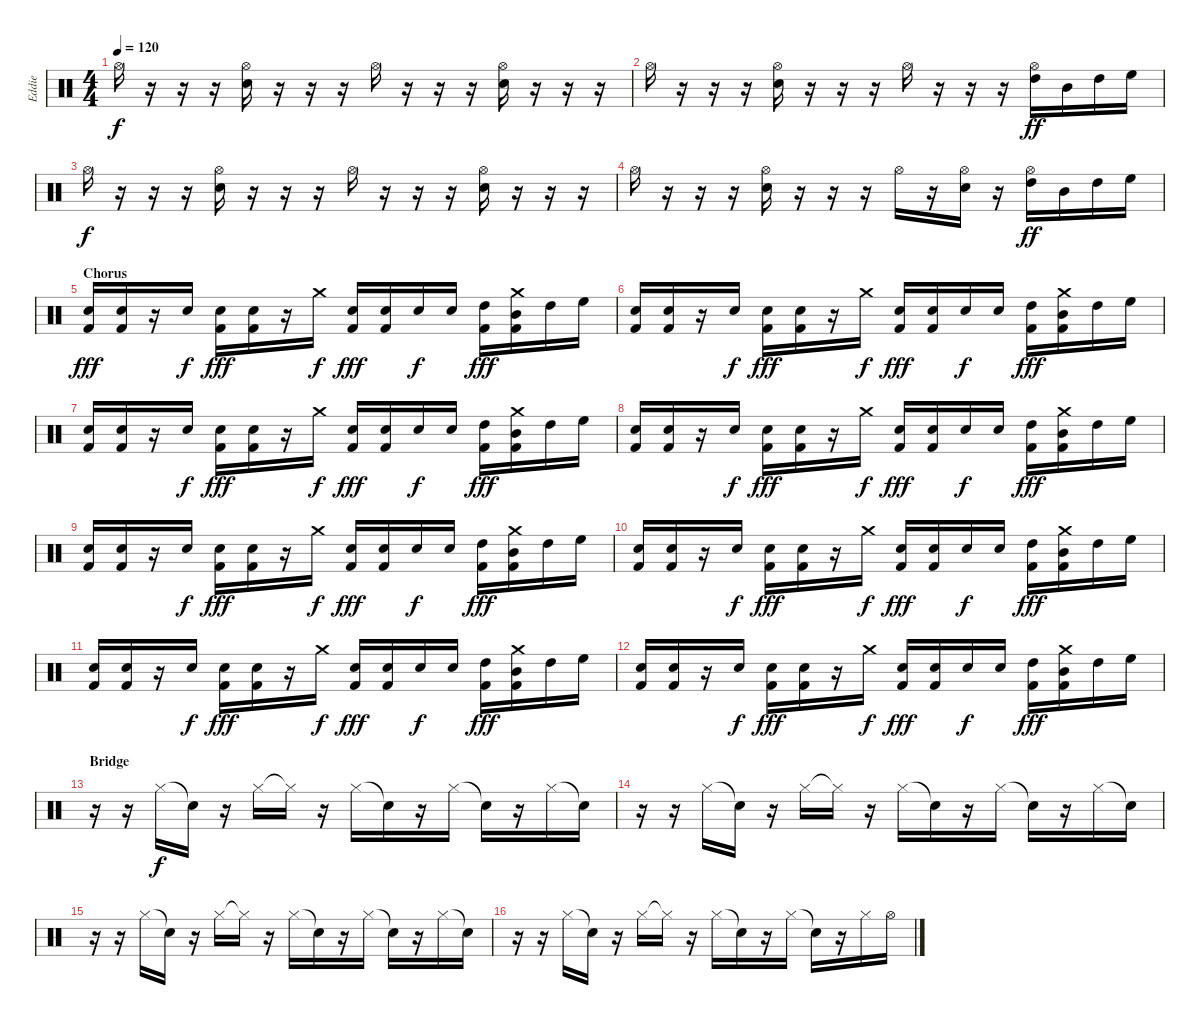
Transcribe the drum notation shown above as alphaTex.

\track ("Eddie" "Eddie") {instrument percussion}
\staff {score}
\articulation defaults
\ts (4 4)
\tempo 120
\clef neutral
\ks c "Hi-Hat (open)".16{dy f}
r.16 r.16 r.16 ("Snare (hit) 2" "Hi-Hat (open)").16 r.16 r.16 r.16 "Hi-Hat (open)".16 r.16 r.16 r.16 ("Snare (hit) 2" "Hi-Hat (open)").16 r.16 r.16 r.16 |
"Hi-Hat (open)".16 r.16 r.16 r.16 ("Snare (hit) 2" "Hi-Hat (open)").16 r.16 r.16 r.16 "Hi-Hat (open)".16 r.16 r.16 r.16 ("High Tom (hit)" "Hi-Hat (open)").16{dy ff} "Mid Tom (hit)".16 "High Tom (hit)".16 "High Floor Tom (hit)".16 |
"Hi-Hat (open)".16{dy f} r.16 r.16 r.16 ("Snare (hit) 2" "Hi-Hat (open)").16 r.16 r.16 r.16 "Hi-Hat (open)".16 r.16 r.16 r.16 ("Snare (hit) 2" "Hi-Hat (open)").16 r.16 r.16 r.16 |
"Hi-Hat (open)".16 r.16 r.16 r.16 ("Snare (hit) 2" "Hi-Hat (open)").16 r.16 r.16 r.16 "Hi-Hat (open)".16 r.16 ("Snare (hit) 2" "Hi-Hat (open)").16 r.16 ("High Tom (hit)" "Hi-Hat (open)").16{dy ff} "Mid Tom (hit)".16 "High Tom (hit)".16 "High Floor Tom (hit)".16 |
\section ("" "Chorus")
("Snare (hit) 2" "Kick (hit) 2").16{dy fff} ("Electric Snare (hit)" "Kick (hit) 2").16 r.16 "Electric Snare (hit)".16{dy f} ("Snare (hit) 2" "Kick (hit) 2").16{dy fff} ("Electric Snare (hit)" "Kick (hit) 2").16 r.16 "Crash medium (hit)".16{dy f} ("Snare (hit) 2" "Kick (hit) 2").16{dy fff} ("Electric Snare (hit)" "Kick (hit) 2").16 "Snare (hit) 2".16{dy f} "Electric Snare (hit)".16 ("High Tom (hit)" "Kick (hit) 2").16{dy fff} ("Mid Tom (hit)" "Crash medium (hit)" "Kick (hit) 2").16 "High Tom (hit)".16 "High Floor Tom (hit)".16 |
("Snare (hit) 2" "Kick (hit) 2").16 ("Electric Snare (hit)" "Kick (hit) 2").16 r.16 "Electric Snare (hit)".16{dy f} ("Snare (hit) 2" "Kick (hit) 2").16{dy fff} ("Electric Snare (hit)" "Kick (hit) 2").16 r.16 "Crash medium (hit)".16{dy f} ("Snare (hit) 2" "Kick (hit) 2").16{dy fff} ("Electric Snare (hit)" "Kick (hit) 2").16 "Snare (hit) 2".16{dy f} "Electric Snare (hit)".16 ("High Tom (hit)" "Kick (hit) 2").16{dy fff} ("Mid Tom (hit)" "Crash medium (hit)" "Kick (hit) 2").16 "High Tom (hit)".16 "High Floor Tom (hit)".16 |
("Snare (hit) 2" "Kick (hit) 2").16 ("Electric Snare (hit)" "Kick (hit) 2").16 r.16 "Electric Snare (hit)".16{dy f} ("Snare (hit) 2" "Kick (hit) 2").16{dy fff} ("Electric Snare (hit)" "Kick (hit) 2").16 r.16 "Crash medium (hit)".16{dy f} ("Snare (hit) 2" "Kick (hit) 2").16{dy fff} ("Electric Snare (hit)" "Kick (hit) 2").16 "Snare (hit) 2".16{dy f} "Electric Snare (hit)".16 ("High Tom (hit)" "Kick (hit) 2").16{dy fff} ("Mid Tom (hit)" "Crash medium (hit)" "Kick (hit) 2").16 "High Tom (hit)".16 "High Floor Tom (hit)".16 |
("Snare (hit) 2" "Kick (hit) 2").16 ("Electric Snare (hit)" "Kick (hit) 2").16 r.16 "Electric Snare (hit)".16{dy f} ("Snare (hit) 2" "Kick (hit) 2").16{dy fff} ("Electric Snare (hit)" "Kick (hit) 2").16 r.16 "Crash medium (hit)".16{dy f} ("Snare (hit) 2" "Kick (hit) 2").16{dy fff} ("Electric Snare (hit)" "Kick (hit) 2").16 "Snare (hit) 2".16{dy f} "Electric Snare (hit)".16 ("High Tom (hit)" "Kick (hit) 2").16{dy fff} ("Mid Tom (hit)" "Crash medium (hit)" "Kick (hit) 2").16 "High Tom (hit)".16 "High Floor Tom (hit)".16 |
("Snare (hit) 2" "Kick (hit) 2").16 ("Electric Snare (hit)" "Kick (hit) 2").16 r.16 "Electric Snare (hit)".16{dy f} ("Snare (hit) 2" "Kick (hit) 2").16{dy fff} ("Electric Snare (hit)" "Kick (hit) 2").16 r.16 "Crash medium (hit)".16{dy f} ("Snare (hit) 2" "Kick (hit) 2").16{dy fff} ("Electric Snare (hit)" "Kick (hit) 2").16 "Snare (hit) 2".16{dy f} "Electric Snare (hit)".16 ("High Tom (hit)" "Kick (hit) 2").16{dy fff} ("Mid Tom (hit)" "Crash medium (hit)" "Kick (hit) 2").16 "High Tom (hit)".16 "High Floor Tom (hit)".16 |
("Snare (hit) 2" "Kick (hit) 2").16 ("Electric Snare (hit)" "Kick (hit) 2").16 r.16 "Electric Snare (hit)".16{dy f} ("Snare (hit) 2" "Kick (hit) 2").16{dy fff} ("Electric Snare (hit)" "Kick (hit) 2").16 r.16 "Crash medium (hit)".16{dy f} ("Snare (hit) 2" "Kick (hit) 2").16{dy fff} ("Electric Snare (hit)" "Kick (hit) 2").16 "Snare (hit) 2".16{dy f} "Electric Snare (hit)".16 ("High Tom (hit)" "Kick (hit) 2").16{dy fff} ("Mid Tom (hit)" "Crash medium (hit)" "Kick (hit) 2").16 "High Tom (hit)".16 "High Floor Tom (hit)".16 |
("Snare (hit) 2" "Kick (hit) 2").16 ("Electric Snare (hit)" "Kick (hit) 2").16 r.16 "Electric Snare (hit)".16{dy f} ("Snare (hit) 2" "Kick (hit) 2").16{dy fff} ("Electric Snare (hit)" "Kick (hit) 2").16 r.16 "Crash medium (hit)".16{dy f} ("Snare (hit) 2" "Kick (hit) 2").16{dy fff} ("Electric Snare (hit)" "Kick (hit) 2").16 "Snare (hit) 2".16{dy f} "Electric Snare (hit)".16 ("High Tom (hit)" "Kick (hit) 2").16{dy fff} ("Mid Tom (hit)" "Crash medium (hit)" "Kick (hit) 2").16 "High Tom (hit)".16 "High Floor Tom (hit)".16 |
("Snare (hit) 2" "Kick (hit) 2").16 ("Electric Snare (hit)" "Kick (hit) 2").16 r.16 "Electric Snare (hit)".16{dy f} ("Snare (hit) 2" "Kick (hit) 2").16{dy fff} ("Electric Snare (hit)" "Kick (hit) 2").16 r.16 "Crash medium (hit)".16{dy f} ("Snare (hit) 2" "Kick (hit) 2").16{dy fff} ("Electric Snare (hit)" "Kick (hit) 2").16 "Snare (hit) 2".16{dy f} "Electric Snare (hit)".16 ("High Tom (hit)" "Kick (hit) 2").16{dy fff} ("Mid Tom (hit)" "Crash medium (hit)" "Kick (hit) 2").16 "High Tom (hit)".16 "High Floor Tom (hit)".16 |
\section ("" "Bridge")
r.16 r.16 "Hi-Hat (closed)".16{dy f} "Snare (hit)"{t}.16 r.16 "Hi-Hat (closed)".16 "Hi-Hat (closed)"{t}.16 r.16 "Hi-Hat (closed)".16 "Snare (hit)"{t}.16 r.16 "Hi-Hat (closed)".16 "Snare (hit)"{t}.16 r.16 "Hi-Hat (closed)".16 "Snare (hit)"{t}.16 |
r.16 r.16 "Hi-Hat (closed)".16 "Snare (hit)"{t}.16 r.16 "Hi-Hat (closed)".16 "Hi-Hat (closed)"{t}.16 r.16 "Hi-Hat (closed)".16 "Snare (hit)"{t}.16 r.16 "Hi-Hat (closed)".16 "Snare (hit)"{t}.16 r.16 "Hi-Hat (closed)".16 "Snare (hit)"{t}.16 |
r.16 r.16 "Hi-Hat (closed)".16 "Snare (hit)"{t}.16 r.16 "Hi-Hat (closed)".16 "Hi-Hat (closed)"{t}.16 r.16 "Hi-Hat (closed)".16 "Snare (hit)"{t}.16 r.16 "Hi-Hat (closed)".16 "Snare (hit)"{t}.16 r.16 "Hi-Hat (closed)".16 "Snare (hit)"{t}.16 |
r.16 r.16 "Hi-Hat (closed)".16 "Snare (hit)"{t}.16 r.16 "Hi-Hat (closed)".16 "Hi-Hat (closed)"{t}.16 r.16 "Hi-Hat (closed)".16 "Snare (hit)"{t}.16 r.16 "Hi-Hat (closed)".16 "Snare (hit)"{t}.16 r.16 "Hi-Hat (closed)".16 "Hi-Hat (open)".16
